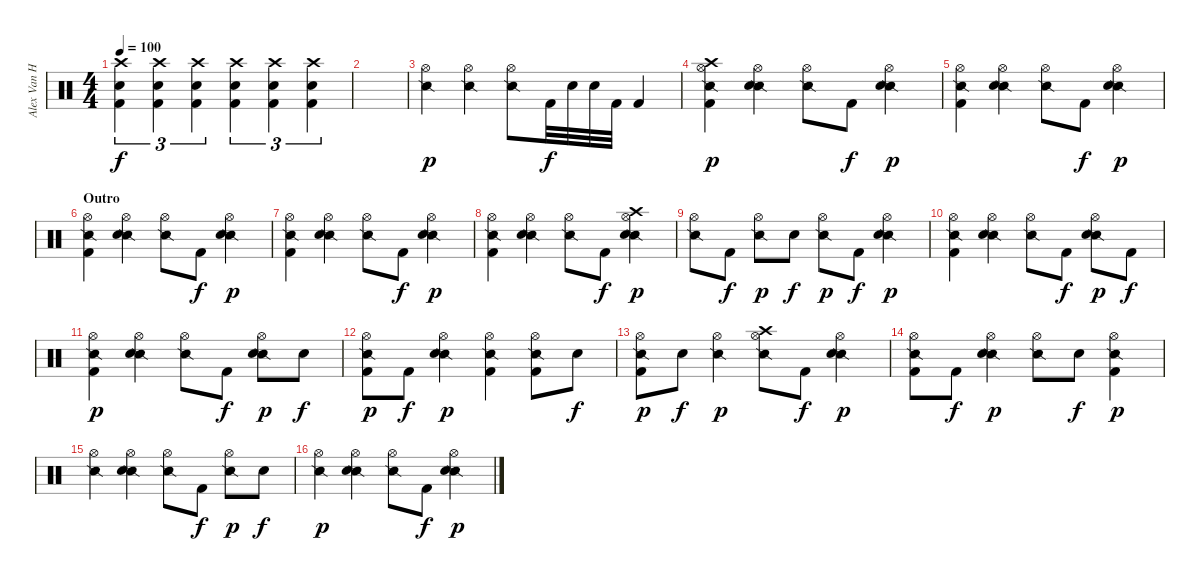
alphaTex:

\track ("Alex Van Halen" "Alex Van H") {instrument percussion}
\staff {score}
\articulation defaults
\ts (4 4)
\tempo 100
\clef neutral
\ks c
("Crash high (hit)" "Snare (hit) 2" "Kick (hit) 2").4{tu (3 2) dy f} ("Crash high (hit)" "Snare (hit) 2" "Kick (hit) 2").4{tu (3 2)} ("Crash high (hit)" "Snare (hit) 2" "Kick (hit) 2").4{tu (3 2)} ("Crash high (hit)" "Snare (hit) 2" "Kick (hit) 2").4{tu (3 2)} ("Crash high (hit)" "Snare (hit) 2" "Kick (hit) 2").4{tu (3 2)} ("Crash high (hit)" "Snare (hit) 2" "Kick (hit) 2").4{tu (3 2)} |
|
("Snare (side stick) 2" "Hi-Hat (open)").4{dy p} ("Snare (side stick) 2" "Hi-Hat (open)").4 ("Snare (side stick) 2" "Hi-Hat (open)").8 "Kick (hit) 2".32{dy f} "Snare (hit) 2".32 "Electric Snare (hit)".32 "Kick (hit) 2".32 "Kick (hit) 2".4 |
("Crash high (hit)" "Snare (side stick) 2" "Kick (hit) 2" "Hi-Hat (open)").4{dy p} ("Snare (side stick) 2" "Snare (hit) 2" "Hi-Hat (open)").4 ("Snare (side stick) 2" "Hi-Hat (open)").8 "Kick (hit) 2".8{dy f} ("Snare (side stick) 2" "Snare (hit) 2" "Hi-Hat (open)").4{dy p} |
("Snare (side stick) 2" "Kick (hit) 2" "Hi-Hat (open)").4 ("Snare (side stick) 2" "Snare (hit) 2" "Hi-Hat (open)").4 ("Snare (side stick) 2" "Hi-Hat (open)").8 "Kick (hit) 2".8{dy f} ("Snare (side stick) 2" "Snare (hit) 2" "Hi-Hat (open)").4{dy p} |
\section ("" "Outro")
("Snare (side stick) 2" "Kick (hit) 2" "Hi-Hat (open)").4{volume 11} ("Snare (side stick) 2" "Snare (hit) 2" "Hi-Hat (open)").4 ("Snare (side stick) 2" "Hi-Hat (open)").8 "Kick (hit) 2".8{dy f} ("Snare (side stick) 2" "Snare (hit) 2" "Hi-Hat (open)").4{dy p} |
("Snare (side stick) 2" "Kick (hit) 2" "Hi-Hat (open)").4 ("Snare (side stick) 2" "Snare (hit) 2" "Hi-Hat (open)").4 ("Snare (side stick) 2" "Hi-Hat (open)").8 "Kick (hit) 2".8{dy f} ("Snare (side stick) 2" "Snare (hit) 2" "Hi-Hat (open)").4{dy p} |
("Snare (side stick) 2" "Kick (hit) 2" "Hi-Hat (open)").4 ("Snare (side stick) 2" "Snare (hit) 2" "Hi-Hat (open)").4 ("Snare (side stick) 2" "Hi-Hat (open)").8 "Kick (hit) 2".8{dy f} ("Crash high (hit)" "Snare (side stick) 2" "Snare (hit) 2" "Hi-Hat (open)").4{dy p} |
("Snare (side stick) 2" "Hi-Hat (open)").8 "Kick (hit) 2".8{dy f} ("Snare (side stick) 2" "Hi-Hat (open)").8{dy p} "Snare (hit) 2".8{dy f} ("Snare (side stick) 2" "Hi-Hat (open)").8{dy p} "Kick (hit) 2".8{dy f} ("Snare (side stick) 2" "Snare (hit) 2" "Hi-Hat (open)").4{dy p} |
("Snare (side stick) 2" "Kick (hit) 2" "Hi-Hat (open)").4 ("Snare (side stick) 2" "Snare (hit) 2" "Hi-Hat (open)").4 ("Snare (side stick) 2" "Hi-Hat (open)").8 "Kick (hit) 2".8{dy f} ("Snare (side stick) 2" "Snare (hit) 2" "Hi-Hat (open)").8{dy p} "Kick (hit) 2".8{dy f} |
("Snare (side stick) 2" "Kick (hit) 2" "Hi-Hat (open)").4{dy p} ("Snare (side stick) 2" "Snare (hit) 2" "Hi-Hat (open)").4 ("Snare (side stick) 2" "Hi-Hat (open)").8 "Kick (hit) 2".8{dy f} ("Snare (side stick) 2" "Snare (hit) 2" "Hi-Hat (open)").8{dy p} "Snare (hit) 2".8{dy f} |
("Snare (side stick) 2" "Kick (hit) 2" "Hi-Hat (open)").8{dy p} "Kick (hit) 2".8{dy f} ("Snare (side stick) 2" "Snare (hit) 2" "Hi-Hat (open)").4{dy p} ("Snare (side stick) 2" "Kick (hit) 2" "Hi-Hat (open)").4 ("Snare (side stick) 2" "Kick (hit) 2" "Hi-Hat (open)").8 "Snare (hit) 2".8{dy f} |
("Snare (side stick) 2" "Kick (hit) 2" "Hi-Hat (open)").8{dy p} "Snare (hit) 2".8{dy f} ("Snare (side stick) 2" "Hi-Hat (open)").4{dy p} ("Crash high (hit)" "Snare (side stick) 2" "Hi-Hat (open)").8 "Kick (hit) 2".8{dy f} ("Snare (side stick) 2" "Snare (hit) 2" "Hi-Hat (open)").4{dy p} |
("Snare (side stick) 2" "Kick (hit) 2" "Hi-Hat (open)").8 "Kick (hit) 2".8{dy f} ("Snare (side stick) 2" "Snare (hit) 2" "Hi-Hat (open)").4{dy p} ("Snare (side stick) 2" "Hi-Hat (open)").8 "Snare (hit) 2".8{dy f} ("Snare (side stick) 2" "Kick (hit) 2" "Hi-Hat (open)").4{dy p} |
("Snare (side stick) 2" "Hi-Hat (open)").4 ("Snare (side stick) 2" "Snare (hit) 2" "Hi-Hat (open)").4 ("Snare (side stick) 2" "Hi-Hat (open)").8 "Kick (hit) 2".8{dy f} ("Snare (side stick) 2" "Hi-Hat (open)").8{dy p} "Snare (hit) 2".8{dy f} |
("Snare (side stick) 2" "Hi-Hat (open)").4{dy p} ("Snare (side stick) 2" "Snare (hit) 2" "Hi-Hat (open)").4 ("Snare (side stick) 2" "Hi-Hat (open)").8 "Kick (hit) 2".8{dy f} ("Snare (side stick) 2" "Snare (hit) 2" "Hi-Hat (open)").4{dy p}
